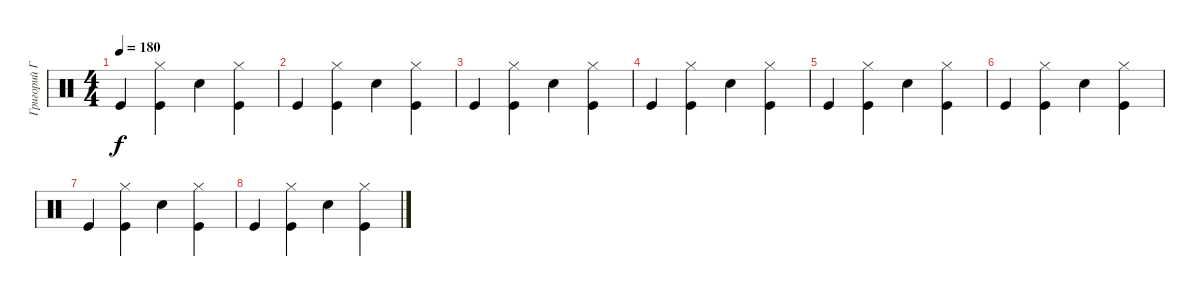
\track ("Григорий Габерман" "Григорий Г") {instrument percussion}
\staff {score}
\articulation defaults
\ts (4 4)
\tempo 180
\clef neutral
\ks c "Kick (hit)".4{dy f}
("Kick (hit)" "Hi-Hat (closed)").4 "Snare (hit) 2".4 ("Kick (hit)" "Hi-Hat (closed)").4 |
"Kick (hit)".4 ("Kick (hit)" "Hi-Hat (closed)").4 "Snare (hit) 2".4 ("Kick (hit)" "Hi-Hat (closed)").4 |
"Kick (hit)".4 ("Kick (hit)" "Hi-Hat (closed)").4 "Snare (hit) 2".4 ("Kick (hit)" "Hi-Hat (closed)").4 |
"Kick (hit)".4 ("Kick (hit)" "Hi-Hat (closed)").4 "Snare (hit) 2".4 ("Kick (hit)" "Hi-Hat (closed)").4 |
"Kick (hit)".4 ("Kick (hit)" "Hi-Hat (closed)").4 "Snare (hit) 2".4 ("Kick (hit)" "Hi-Hat (closed)").4 |
"Kick (hit)".4 ("Kick (hit)" "Hi-Hat (closed)").4 "Snare (hit) 2".4 ("Kick (hit)" "Hi-Hat (closed)").4 |
"Kick (hit)".4{volume 0} ("Kick (hit)" "Hi-Hat (closed)").4 "Snare (hit) 2".4 ("Kick (hit)" "Hi-Hat (closed)").4 |
"Kick (hit)".4 ("Kick (hit)" "Hi-Hat (closed)").4 "Snare (hit) 2".4 ("Kick (hit)" "Hi-Hat (closed)").4
